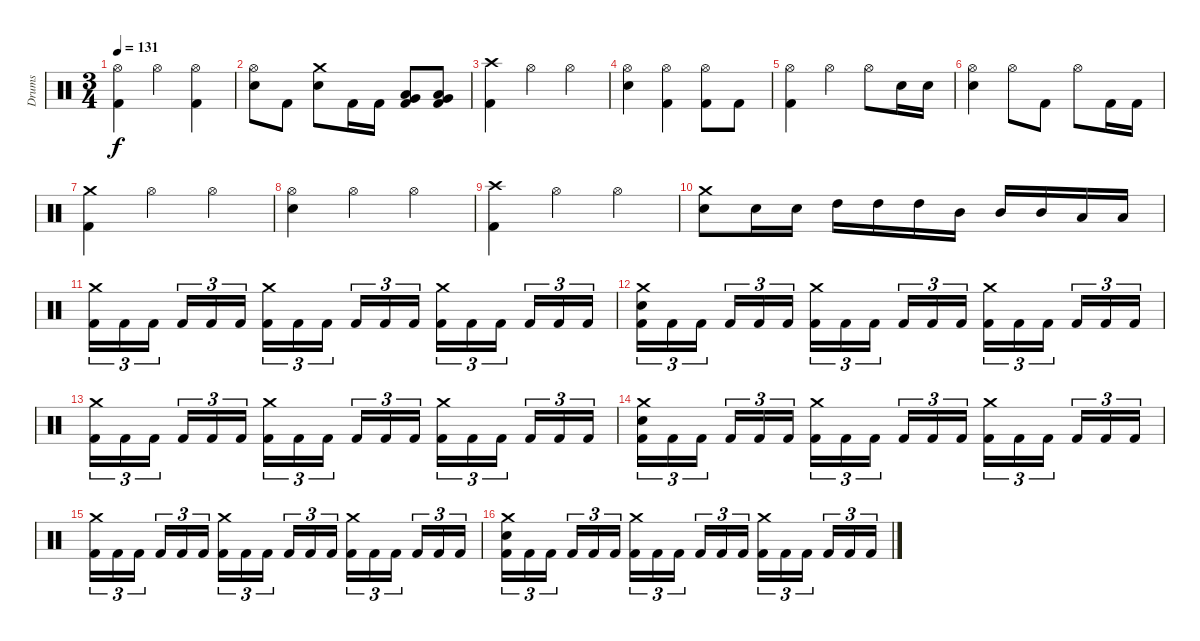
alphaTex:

\track ("Drums" "Drums") {instrument percussion}
\staff {score}
\articulation defaults
\ts (3 4)
\tempo 131
\clef neutral
\ks c
("Kick (hit) 2" "Hi-Hat (open)").4{dy f} "Hi-Hat (open)".4 ("Kick (hit) 2" "Hi-Hat (open)").4 |
("Electric Snare (hit)" "Hi-Hat (open)").8 "Kick (hit) 2".8 ("Electric Snare (hit)" "Crash medium (hit)").8 "Kick (hit) 2".16 "Kick (hit) 2".16 ("Kick (hit) 2" "Low Tom (hit)" "Very Low Tom (hit)").8 ("Kick (hit) 2" "Low Tom (hit)" "Very Low Tom (hit)").8 |
("Kick (hit) 2" "Crash high (hit)").4 "Hi-Hat (open)".4 "Hi-Hat (open)".4 |
("Electric Snare (hit)" "Hi-Hat (open)").4 ("Kick (hit) 2" "Hi-Hat (open)").4 ("Kick (hit) 2" "Hi-Hat (open)").8 "Kick (hit) 2".8 |
("Kick (hit) 2" "Hi-Hat (open)").4 "Hi-Hat (open)".4 "Hi-Hat (open)".8 "Electric Snare (hit)".16 "Electric Snare (hit)".16 |
("Electric Snare (hit)" "Hi-Hat (open)").4 "Hi-Hat (open)".8 "Kick (hit) 2".8 "Hi-Hat (open)".8 "Kick (hit) 2".16 "Kick (hit) 2".16 |
("Kick (hit) 2" "Crash medium (hit)").4 "Hi-Hat (open)".4 "Hi-Hat (open)".4 |
("Electric Snare (hit)" "Hi-Hat (open)").4 "Hi-Hat (open)".4 "Hi-Hat (open)".4 |
("Kick (hit) 2" "Crash high (hit)").4 "Hi-Hat (open)".4 "Hi-Hat (open)".4 |
("Electric Snare (hit)" "Crash medium (hit)").8 "Electric Snare (hit)".16 "Electric Snare (hit)".16 "High Tom (hit)".16 "High Tom (hit)".16 "High Tom (hit)".16 "Mid Tom (hit)".16 "Mid Tom (hit)".16 "Mid Tom (hit)".16 "Low Tom (hit)".16 "Low Tom (hit)".16 |
("Kick (hit) 2" "Crash medium (hit)").16{tu (3 2)} "Kick (hit) 2".16{tu (3 2)} "Kick (hit) 2".16{tu (3 2)} "Kick (hit) 2".16{tu (3 2)} "Kick (hit) 2".16{tu (3 2)} "Kick (hit) 2".16{tu (3 2)} ("Kick (hit) 2" "Crash medium (hit)").16{tu (3 2)} "Kick (hit) 2".16{tu (3 2)} "Kick (hit) 2".16{tu (3 2)} "Kick (hit) 2".16{tu (3 2)} "Kick (hit) 2".16{tu (3 2)} "Kick (hit) 2".16{tu (3 2)} ("Kick (hit) 2" "Crash medium (hit)").16{tu (3 2)} "Kick (hit) 2".16{tu (3 2)} "Kick (hit) 2".16{tu (3 2)} "Kick (hit) 2".16{tu (3 2)} "Kick (hit) 2".16{tu (3 2)} "Kick (hit) 2".16{tu (3 2)} |
("Kick (hit) 2" "Electric Snare (hit)" "Crash medium (hit)").16{tu (3 2)} "Kick (hit) 2".16{tu (3 2)} "Kick (hit) 2".16{tu (3 2)} "Kick (hit) 2".16{tu (3 2)} "Kick (hit) 2".16{tu (3 2)} "Kick (hit) 2".16{tu (3 2)} ("Kick (hit) 2" "Crash medium (hit)").16{tu (3 2)} "Kick (hit) 2".16{tu (3 2)} "Kick (hit) 2".16{tu (3 2)} "Kick (hit) 2".16{tu (3 2)} "Kick (hit) 2".16{tu (3 2)} "Kick (hit) 2".16{tu (3 2)} ("Kick (hit) 2" "Crash medium (hit)").16{tu (3 2)} "Kick (hit) 2".16{tu (3 2)} "Kick (hit) 2".16{tu (3 2)} "Kick (hit) 2".16{tu (3 2)} "Kick (hit) 2".16{tu (3 2)} "Kick (hit) 2".16{tu (3 2)} |
("Kick (hit) 2" "Crash medium (hit)").16{tu (3 2)} "Kick (hit) 2".16{tu (3 2)} "Kick (hit) 2".16{tu (3 2)} "Kick (hit) 2".16{tu (3 2)} "Kick (hit) 2".16{tu (3 2)} "Kick (hit) 2".16{tu (3 2)} ("Kick (hit) 2" "Crash medium (hit)").16{tu (3 2)} "Kick (hit) 2".16{tu (3 2)} "Kick (hit) 2".16{tu (3 2)} "Kick (hit) 2".16{tu (3 2)} "Kick (hit) 2".16{tu (3 2)} "Kick (hit) 2".16{tu (3 2)} ("Kick (hit) 2" "Crash medium (hit)").16{tu (3 2)} "Kick (hit) 2".16{tu (3 2)} "Kick (hit) 2".16{tu (3 2)} "Kick (hit) 2".16{tu (3 2)} "Kick (hit) 2".16{tu (3 2)} "Kick (hit) 2".16{tu (3 2)} |
("Kick (hit) 2" "Electric Snare (hit)" "Crash medium (hit)").16{tu (3 2)} "Kick (hit) 2".16{tu (3 2)} "Kick (hit) 2".16{tu (3 2)} "Kick (hit) 2".16{tu (3 2)} "Kick (hit) 2".16{tu (3 2)} "Kick (hit) 2".16{tu (3 2)} ("Kick (hit) 2" "Crash medium (hit)").16{tu (3 2)} "Kick (hit) 2".16{tu (3 2)} "Kick (hit) 2".16{tu (3 2)} "Kick (hit) 2".16{tu (3 2)} "Kick (hit) 2".16{tu (3 2)} "Kick (hit) 2".16{tu (3 2)} ("Kick (hit) 2" "Crash medium (hit)").16{tu (3 2)} "Kick (hit) 2".16{tu (3 2)} "Kick (hit) 2".16{tu (3 2)} "Kick (hit) 2".16{tu (3 2)} "Kick (hit) 2".16{tu (3 2)} "Kick (hit) 2".16{tu (3 2)} |
("Kick (hit) 2" "Crash medium (hit)").16{tu (3 2)} "Kick (hit) 2".16{tu (3 2)} "Kick (hit) 2".16{tu (3 2)} "Kick (hit) 2".16{tu (3 2)} "Kick (hit) 2".16{tu (3 2)} "Kick (hit) 2".16{tu (3 2)} ("Kick (hit) 2" "Crash medium (hit)").16{tu (3 2)} "Kick (hit) 2".16{tu (3 2)} "Kick (hit) 2".16{tu (3 2)} "Kick (hit) 2".16{tu (3 2)} "Kick (hit) 2".16{tu (3 2)} "Kick (hit) 2".16{tu (3 2)} ("Kick (hit) 2" "Crash medium (hit)").16{tu (3 2)} "Kick (hit) 2".16{tu (3 2)} "Kick (hit) 2".16{tu (3 2)} "Kick (hit) 2".16{tu (3 2)} "Kick (hit) 2".16{tu (3 2)} "Kick (hit) 2".16{tu (3 2)} |
("Kick (hit) 2" "Electric Snare (hit)" "Crash medium (hit)").16{tu (3 2)} "Kick (hit) 2".16{tu (3 2)} "Kick (hit) 2".16{tu (3 2)} "Kick (hit) 2".16{tu (3 2)} "Kick (hit) 2".16{tu (3 2)} "Kick (hit) 2".16{tu (3 2)} ("Kick (hit) 2" "Crash medium (hit)").16{tu (3 2)} "Kick (hit) 2".16{tu (3 2)} "Kick (hit) 2".16{tu (3 2)} "Kick (hit) 2".16{tu (3 2)} "Kick (hit) 2".16{tu (3 2)} "Kick (hit) 2".16{tu (3 2)} ("Kick (hit) 2" "Crash medium (hit)").16{tu (3 2)} "Kick (hit) 2".16{tu (3 2)} "Kick (hit) 2".16{tu (3 2)} "Kick (hit) 2".16{tu (3 2)} "Kick (hit) 2".16{tu (3 2)} "Kick (hit) 2".16{tu (3 2)}
